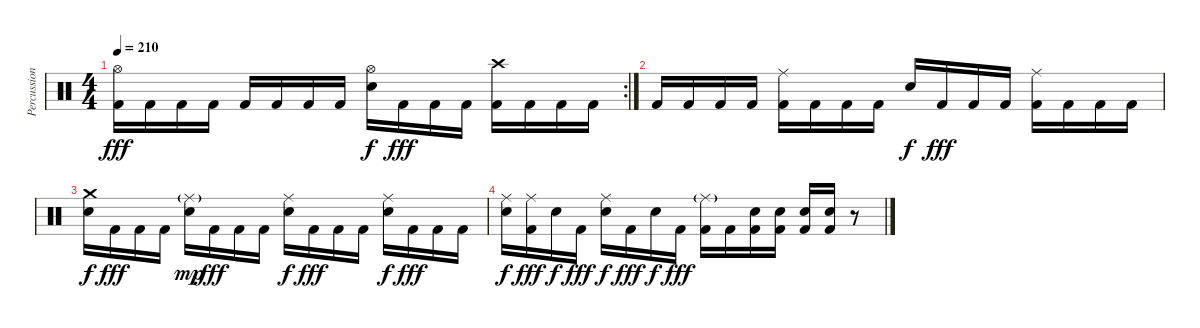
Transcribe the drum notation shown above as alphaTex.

\track ("Percussions" "Percussion") {instrument percussion}
\staff {score}
\articulation defaults
\rc 2
\ts (4 4)
\tempo 210
\clef neutral
\ks c
("Hi-Hat (open)" "Kick (hit) 2").16{dy fff} "Kick (hit) 2".16 "Kick (hit) 2".16 "Kick (hit) 2".16 "Kick (hit) 2".16 "Kick (hit) 2".16 "Kick (hit) 2".16 "Kick (hit) 2".16 ("Hi-Hat (open)" "Electric Snare (hit)").16{dy f} "Kick (hit) 2".16{dy fff} "Kick (hit) 2".16 "Kick (hit) 2".16 ("Crash high (hit)" "Kick (hit) 2").16 "Kick (hit) 2".16 "Kick (hit) 2".16 "Kick (hit) 2".16 |
"Kick (hit) 2".16 "Kick (hit) 2".16 "Kick (hit) 2".16 "Kick (hit) 2".16 ("Ride (middle)" "Kick (hit) 2").16 "Kick (hit) 2".16 "Kick (hit) 2".16 "Kick (hit) 2".16 "Electric Snare (hit)".16{dy f} "Kick (hit) 2".16{dy fff} "Kick (hit) 2".16 "Kick (hit) 2".16 ("Ride (middle)" "Kick (hit) 2").16 "Kick (hit) 2".16 "Kick (hit) 2".16 "Kick (hit) 2".16 |
("Crash medium (hit)" "Electric Snare (hit)").16{dy f} "Kick (hit) 2".16{dy fff} "Kick (hit) 2".16 "Kick (hit) 2".16 ("Ride (middle)"{g} "Electric Snare (hit)").16{dy mp} "Kick (hit) 2".16{dy fff} "Kick (hit) 2".16 "Kick (hit) 2".16 ("Ride (middle)" "Electric Snare (hit)").16{dy f} "Kick (hit) 2".16{dy fff} "Kick (hit) 2".16 "Kick (hit) 2".16 ("Ride (middle)" "Electric Snare (hit)").16{dy f} "Kick (hit) 2".16{dy fff} "Kick (hit) 2".16 "Kick (hit) 2".16 |
("Ride (middle)" "Electric Snare (hit)").16{dy f} ("Ride (middle)" "Kick (hit) 2").16{dy fff} "Electric Snare (hit)".16{dy f} "Kick (hit) 2".16{dy fff} ("Ride (middle)" "Electric Snare (hit)").16{dy f} "Kick (hit) 2".16{dy fff} "Electric Snare (hit)".16{dy f} "Kick (hit) 2".16{dy fff} ("Ride (middle)"{g} "Kick (hit) 2").16 "Kick (hit) 2".16 ("Electric Snare (hit)" "Kick (hit) 2").16 ("Electric Snare (hit)" "Kick (hit) 2").16 ("Electric Snare (hit)" "Kick (hit) 2").16 ("Electric Snare (hit)" "Kick (hit) 2").16 r.8
